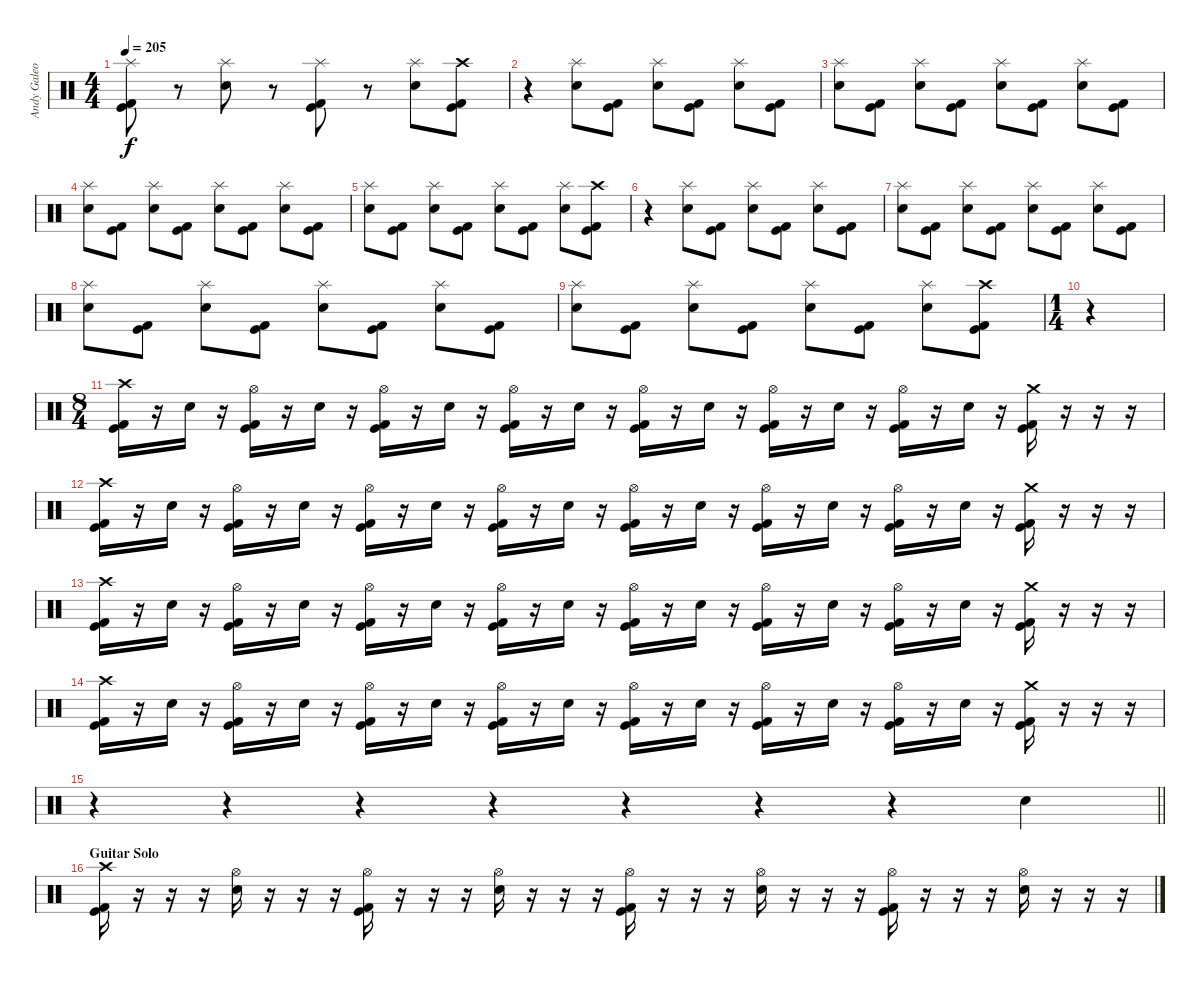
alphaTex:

\track ("Andy Galeon - Drums" "Andy Galeo") {instrument percussion}
\staff {score}
\articulation defaults
\ts (4 4)
\tempo 205
\clef neutral
\ks c
("Splash (hit)" "Kick (hit) 2" "Kick (hit)").8{dy f} r.8 ("Splash (hit)" "Electric Snare (hit)").8 r.8 ("Splash (hit)" "Kick (hit) 2" "Kick (hit)").8 r.8 ("Splash (hit)" "Electric Snare (hit)").8 ("Crash high (hit)" "Kick (hit)" "Kick (hit) 2").8 |
r.4 ("Splash (hit)" "Electric Snare (hit)").8 ("Kick (hit) 2" "Kick (hit)").8 ("Splash (hit)" "Electric Snare (hit)").8 ("Kick (hit) 2" "Kick (hit)").8 ("Splash (hit)" "Electric Snare (hit)").8 ("Kick (hit) 2" "Kick (hit)").8 |
("Splash (hit)" "Electric Snare (hit)").8 ("Kick (hit) 2" "Kick (hit)").8 ("Splash (hit)" "Electric Snare (hit)").8 ("Kick (hit) 2" "Kick (hit)").8 ("Splash (hit)" "Electric Snare (hit)").8 ("Kick (hit)" "Kick (hit) 2").8 ("Splash (hit)" "Electric Snare (hit)").8 ("Kick (hit)" "Kick (hit) 2").8 |
("Splash (hit)" "Electric Snare (hit)").8 ("Kick (hit) 2" "Kick (hit)").8 ("Splash (hit)" "Electric Snare (hit)").8 ("Kick (hit) 2" "Kick (hit)").8 ("Splash (hit)" "Electric Snare (hit)").8 ("Kick (hit)" "Kick (hit) 2").8 ("Splash (hit)" "Electric Snare (hit)").8 ("Kick (hit)" "Kick (hit) 2").8 |
("Splash (hit)" "Electric Snare (hit)").8 ("Kick (hit) 2" "Kick (hit)").8 ("Splash (hit)" "Electric Snare (hit)").8 ("Kick (hit) 2" "Kick (hit)").8 ("Splash (hit)" "Electric Snare (hit)").8 ("Kick (hit)" "Kick (hit) 2").8 ("Splash (hit)" "Electric Snare (hit)").8 ("Crash high (hit)" "Kick (hit)" "Kick (hit) 2").8 |
r.4 ("Splash (hit)" "Electric Snare (hit)").8 ("Kick (hit) 2" "Kick (hit)").8 ("Splash (hit)" "Electric Snare (hit)").8 ("Kick (hit) 2" "Kick (hit)").8 ("Splash (hit)" "Electric Snare (hit)").8 ("Kick (hit) 2" "Kick (hit)").8 |
("Splash (hit)" "Electric Snare (hit)").8 ("Kick (hit) 2" "Kick (hit)").8 ("Splash (hit)" "Electric Snare (hit)").8 ("Kick (hit) 2" "Kick (hit)").8 ("Splash (hit)" "Electric Snare (hit)").8 ("Kick (hit)" "Kick (hit) 2").8 ("Splash (hit)" "Electric Snare (hit)").8 ("Kick (hit)" "Kick (hit) 2").8 |
("Splash (hit)" "Electric Snare (hit)").8 ("Kick (hit) 2" "Kick (hit)").8 ("Splash (hit)" "Electric Snare (hit)").8 ("Kick (hit) 2" "Kick (hit)").8 ("Splash (hit)" "Electric Snare (hit)").8 ("Kick (hit)" "Kick (hit) 2").8 ("Splash (hit)" "Electric Snare (hit)").8 ("Kick (hit)" "Kick (hit) 2").8 |
("Splash (hit)" "Electric Snare (hit)").8 ("Kick (hit) 2" "Kick (hit)").8 ("Splash (hit)" "Electric Snare (hit)").8 ("Kick (hit) 2" "Kick (hit)").8 ("Splash (hit)" "Electric Snare (hit)").8 ("Kick (hit)" "Kick (hit) 2").8 ("Splash (hit)" "Electric Snare (hit)").8 ("Crash high (hit)" "Kick (hit)" "Kick (hit) 2").8 |
\ts (1 4)
r.4 |
\ts (8 4)
("Crash high (hit)" "Kick (hit) 2" "Kick (hit)").16 r.16 "Electric Snare (hit)".16 r.16 ("Hi-Hat (open)" "Kick (hit) 2" "Kick (hit)").16 r.16 "Electric Snare (hit)".16 r.16 ("Hi-Hat (open)" "Kick (hit) 2" "Kick (hit)").16 r.16 "Electric Snare (hit)".16 r.16 ("Hi-Hat (open)" "Kick (hit) 2" "Kick (hit)").16 r.16 "Electric Snare (hit)".16 r.16 ("Hi-Hat (open)" "Kick (hit) 2" "Kick (hit)").16 r.16 "Electric Snare (hit)".16 r.16 ("Hi-Hat (open)" "Kick (hit) 2" "Kick (hit)").16 r.16 "Electric Snare (hit)".16 r.16 ("Hi-Hat (open)" "Kick (hit) 2" "Kick (hit)").16 r.16 "Electric Snare (hit)".16 r.16 ("Crash medium (hit)" "Kick (hit)" "Kick (hit) 2").16 r.16 r.16 r.16 |
("Crash high (hit)" "Kick (hit) 2" "Kick (hit)").16 r.16 "Electric Snare (hit)".16 r.16 ("Hi-Hat (open)" "Kick (hit) 2" "Kick (hit)").16 r.16 "Electric Snare (hit)".16 r.16 ("Hi-Hat (open)" "Kick (hit) 2" "Kick (hit)").16 r.16 "Electric Snare (hit)".16 r.16 ("Hi-Hat (open)" "Kick (hit) 2" "Kick (hit)").16 r.16 "Electric Snare (hit)".16 r.16 ("Hi-Hat (open)" "Kick (hit) 2" "Kick (hit)").16 r.16 "Electric Snare (hit)".16 r.16 ("Hi-Hat (open)" "Kick (hit) 2" "Kick (hit)").16 r.16 "Electric Snare (hit)".16 r.16 ("Hi-Hat (open)" "Kick (hit) 2" "Kick (hit)").16 r.16 "Electric Snare (hit)".16 r.16 ("Crash medium (hit)" "Kick (hit)" "Kick (hit) 2").16 r.16 r.16 r.16 |
("Crash high (hit)" "Kick (hit) 2" "Kick (hit)").16 r.16 "Electric Snare (hit)".16 r.16 ("Hi-Hat (open)" "Kick (hit) 2" "Kick (hit)").16 r.16 "Electric Snare (hit)".16 r.16 ("Hi-Hat (open)" "Kick (hit) 2" "Kick (hit)").16 r.16 "Electric Snare (hit)".16 r.16 ("Hi-Hat (open)" "Kick (hit) 2" "Kick (hit)").16 r.16 "Electric Snare (hit)".16 r.16 ("Hi-Hat (open)" "Kick (hit) 2" "Kick (hit)").16 r.16 "Electric Snare (hit)".16 r.16 ("Hi-Hat (open)" "Kick (hit) 2" "Kick (hit)").16 r.16 "Electric Snare (hit)".16 r.16 ("Hi-Hat (open)" "Kick (hit) 2" "Kick (hit)").16 r.16 "Electric Snare (hit)".16 r.16 ("Crash medium (hit)" "Kick (hit)" "Kick (hit) 2").16 r.16 r.16 r.16 |
("Crash high (hit)" "Kick (hit) 2" "Kick (hit)").16 r.16 "Electric Snare (hit)".16 r.16 ("Hi-Hat (open)" "Kick (hit) 2" "Kick (hit)").16 r.16 "Electric Snare (hit)".16 r.16 ("Hi-Hat (open)" "Kick (hit) 2" "Kick (hit)").16 r.16 "Electric Snare (hit)".16 r.16 ("Hi-Hat (open)" "Kick (hit) 2" "Kick (hit)").16 r.16 "Electric Snare (hit)".16 r.16 ("Hi-Hat (open)" "Kick (hit) 2" "Kick (hit)").16 r.16 "Electric Snare (hit)".16 r.16 ("Hi-Hat (open)" "Kick (hit) 2" "Kick (hit)").16 r.16 "Electric Snare (hit)".16 r.16 ("Hi-Hat (open)" "Kick (hit) 2" "Kick (hit)").16 r.16 "Electric Snare (hit)".16 r.16 ("Crash medium (hit)" "Kick (hit)" "Kick (hit) 2").16 r.16 r.16 r.16 |
\barLineRight lightlight
r.4 r.4 r.4 r.4 r.4 r.4 r.4 "Electric Snare (hit)".4 |
\section ("" "Guitar Solo")
("Crash high (hit)" "Kick (hit) 2" "Kick (hit)").16 r.16 r.16 r.16 ("Hi-Hat (open)" "Electric Snare (hit)").16 r.16 r.16 r.16 ("Hi-Hat (open)" "Kick (hit) 2" "Kick (hit)").16 r.16 r.16 r.16 ("Hi-Hat (open)" "Electric Snare (hit)").16 r.16 r.16 r.16 ("Hi-Hat (open)" "Kick (hit) 2" "Kick (hit)").16 r.16 r.16 r.16 ("Hi-Hat (open)" "Electric Snare (hit)").16 r.16 r.16 r.16 ("Hi-Hat (open)" "Kick (hit) 2" "Kick (hit)").16 r.16 r.16 r.16 ("Hi-Hat (open)" "Electric Snare (hit)").16 r.16 r.16 r.16
